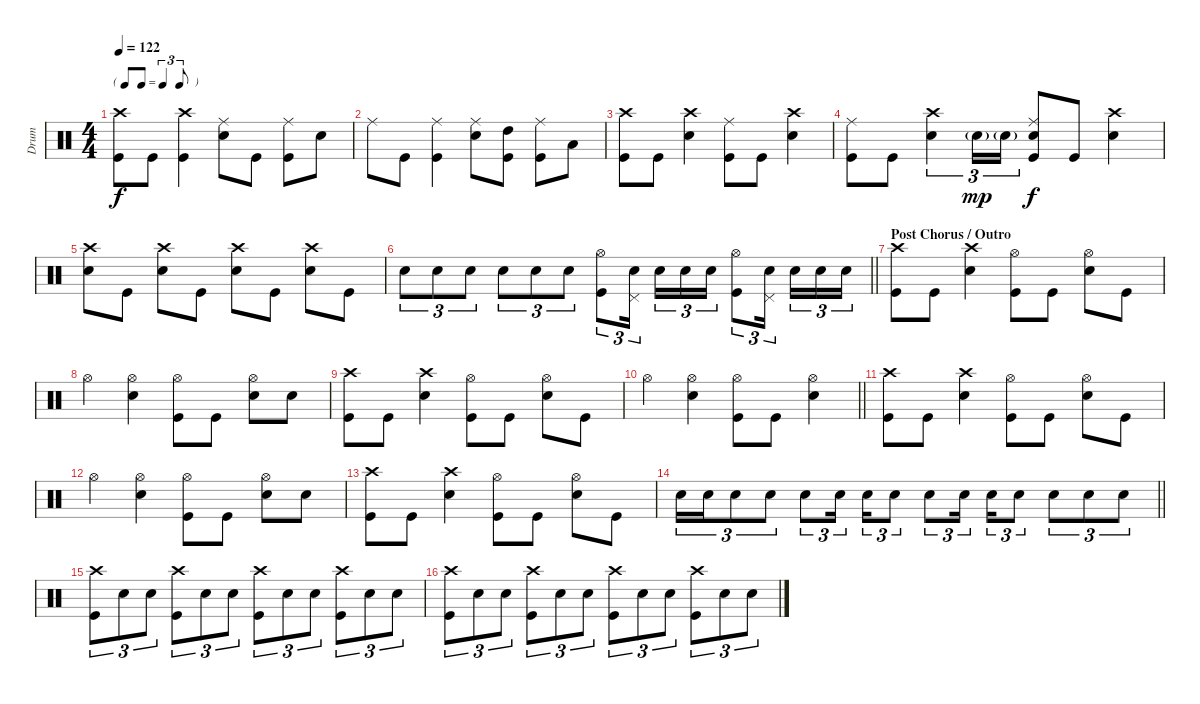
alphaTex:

\track ("Drum" "Drum") {instrument percussion}
\staff {score}
\articulation defaults
\ts (4 4)
\tf triplet8th
\tempo 122
\clef neutral
\ks c
("Crash high (hit)" "Kick (hit)").8{dy f} "Kick (hit)".8 ("Crash high (hit)" "Kick (hit)").4 ("Ride (middle)" "Electric Snare (hit)").8 "Kick (hit)".8 ("Ride (middle)" "Kick (hit)").8 "Electric Snare (hit)".8 |
"Ride (middle)".8 "Kick (hit)".8 ("Ride (middle)" "Kick (hit)").4 ("Ride (middle)" "Electric Snare (hit)").8 ("High Tom (hit)" "Kick (hit)").8 ("Ride (middle)" "Kick (hit)").8 "Low Tom (hit)".8 |
("Crash high (hit)" "Kick (hit)").8 "Kick (hit)".8 ("Crash high (hit)" "Electric Snare (hit)").4 ("Ride (middle)" "Kick (hit)").8 "Kick (hit)".8 ("Crash high (hit)" "Electric Snare (hit)").4 |
("Ride (middle)" "Kick (hit)").8 "Kick (hit)".8 ("Crash high (hit)" "Electric Snare (hit)").4{tu (3 2)} "Electric Snare (hit)"{g}.16{tu (3 2) dy mp} "Electric Snare (hit)"{g}.16{tu (3 2)} ("Ride (middle)" "Electric Snare (hit)" "Kick (hit)").8{dy f} "Kick (hit)".8 ("Crash high (hit)" "Electric Snare (hit)").4 |
("Crash high (hit)" "Electric Snare (hit)").8 "Kick (hit)".8 ("Crash high (hit)" "Electric Snare (hit)").8 "Kick (hit)".8 ("Crash high (hit)" "Electric Snare (hit)").8 "Kick (hit)".8 ("Crash high (hit)" "Electric Snare (hit)").8 "Kick (hit)".8 |
\barLineRight lightlight "Electric Snare (hit)".8{tu (3 2)} "Electric Snare (hit)".8{tu (3 2)} "Electric Snare (hit)".8{tu (3 2)} "Electric Snare (hit)".8{tu (3 2)} "Electric Snare (hit)".8{tu (3 2)} "Electric Snare (hit)".8{tu (3 2)}
("Hi-Hat (open)" "Kick (hit)").8{tu (3 2)} ("Pedal Hi-Hat (hit)" "Electric Snare (hit)").16{tu (3 2)} "Electric Snare (hit)".16{tu (3 2)} "Electric Snare (hit)".16{tu (3 2)} "Electric Snare (hit)".16{tu (3 2)} ("Hi-Hat (open)" "Kick (hit)").8{tu (3 2)} ("Pedal Hi-Hat (hit)" "Electric Snare (hit)").16{tu (3 2)} "Electric Snare (hit)".16{tu (3 2)} "Electric Snare (hit)".16{tu (3 2)} "Electric Snare (hit)".16{tu (3 2)} |
\section ("" "Post Chorus / Outro")
("Crash high (hit)" "Kick (hit)").8 "Kick (hit)".8 ("Crash high (hit)" "Electric Snare (hit)").4 ("Hi-Hat (open)" "Kick (hit)").8 "Kick (hit)".8 ("Hi-Hat (open)" "Electric Snare (hit)").8 "Kick (hit)".8 |
"Hi-Hat (open)".4 ("Hi-Hat (open)" "Electric Snare (hit)").4 ("Hi-Hat (open)" "Kick (hit)").8 "Kick (hit)".8 ("Hi-Hat (open)" "Electric Snare (hit)").8 "Electric Snare (hit)".8 |
("Crash high (hit)" "Kick (hit)").8 "Kick (hit)".8 ("Crash high (hit)" "Electric Snare (hit)").4 ("Hi-Hat (open)" "Kick (hit)").8 "Kick (hit)".8 ("Hi-Hat (open)" "Electric Snare (hit)").8 "Kick (hit)".8 |
\barLineRight lightlight "Hi-Hat (open)".4
("Hi-Hat (open)" "Electric Snare (hit)").4 ("Hi-Hat (open)" "Kick (hit)").8 "Kick (hit)".8 ("Hi-Hat (open)" "Electric Snare (hit)").4 |
("Crash high (hit)" "Kick (hit)").8 "Kick (hit)".8 ("Crash high (hit)" "Electric Snare (hit)").4 ("Hi-Hat (open)" "Kick (hit)").8 "Kick (hit)".8 ("Hi-Hat (open)" "Electric Snare (hit)").8 "Kick (hit)".8 |
"Hi-Hat (open)".4 ("Hi-Hat (open)" "Electric Snare (hit)").4 ("Hi-Hat (open)" "Kick (hit)").8 "Kick (hit)".8 ("Hi-Hat (open)" "Electric Snare (hit)").8 "Electric Snare (hit)".8 |
("Crash high (hit)" "Kick (hit)").8 "Kick (hit)".8 ("Crash high (hit)" "Electric Snare (hit)").4 ("Hi-Hat (open)" "Kick (hit)").8 "Kick (hit)".8 ("Hi-Hat (open)" "Electric Snare (hit)").8 "Kick (hit)".8 |
\barLineRight lightlight "Electric Snare (hit)".16{tu (3 2)} "Electric Snare (hit)".16{tu (3 2)} "Electric Snare (hit)".8{tu (3 2)} "Electric Snare (hit)".8{tu (3 2)} "Electric Snare (hit)".8{tu (3 2)} "Electric Snare (hit)".16{tu (3 2)} "Electric Snare (hit)".16{tu (3 2)} "Electric Snare (hit)".8{tu (3 2)} "Electric Snare (hit)".8{tu (3 2)} "Electric Snare (hit)".16{tu (3 2)} "Electric Snare (hit)".16{tu (3 2)} "Electric Snare (hit)".8{tu (3 2)} "Electric Snare (hit)".8{tu (3 2)} "Electric Snare (hit)".8{tu (3 2)} "Electric Snare (hit)".8{tu (3 2)}
|
("Crash high (hit)" "Kick (hit)").8{tu (3 2)} "Electric Snare (hit)".8{tu (3 2)} "Electric Snare (hit)".8{tu (3 2)} ("Crash high (hit)" "Kick (hit)").8{tu (3 2)} "Electric Snare (hit)".8{tu (3 2)} "Electric Snare (hit)".8{tu (3 2)} ("Crash high (hit)" "Kick (hit)").8{tu (3 2)} "Electric Snare (hit)".8{tu (3 2)} "Electric Snare (hit)".8{tu (3 2)} ("Crash high (hit)" "Kick (hit)").8{tu (3 2)} "Electric Snare (hit)".8{tu (3 2)} "Electric Snare (hit)".8{tu (3 2)} |
("Crash high (hit)" "Kick (hit)").8{tu (3 2)} "Electric Snare (hit)".8{tu (3 2)} "Electric Snare (hit)".8{tu (3 2)} ("Crash high (hit)" "Kick (hit)").8{tu (3 2)} "Electric Snare (hit)".8{tu (3 2)} "Electric Snare (hit)".8{tu (3 2)} ("Crash high (hit)" "Kick (hit)").8{tu (3 2)} "Electric Snare (hit)".8{tu (3 2)} "Electric Snare (hit)".8{tu (3 2)} ("Crash high (hit)" "Kick (hit)").8{tu (3 2)} "Electric Snare (hit)".8{tu (3 2)} "Electric Snare (hit)".8{tu (3 2)}
